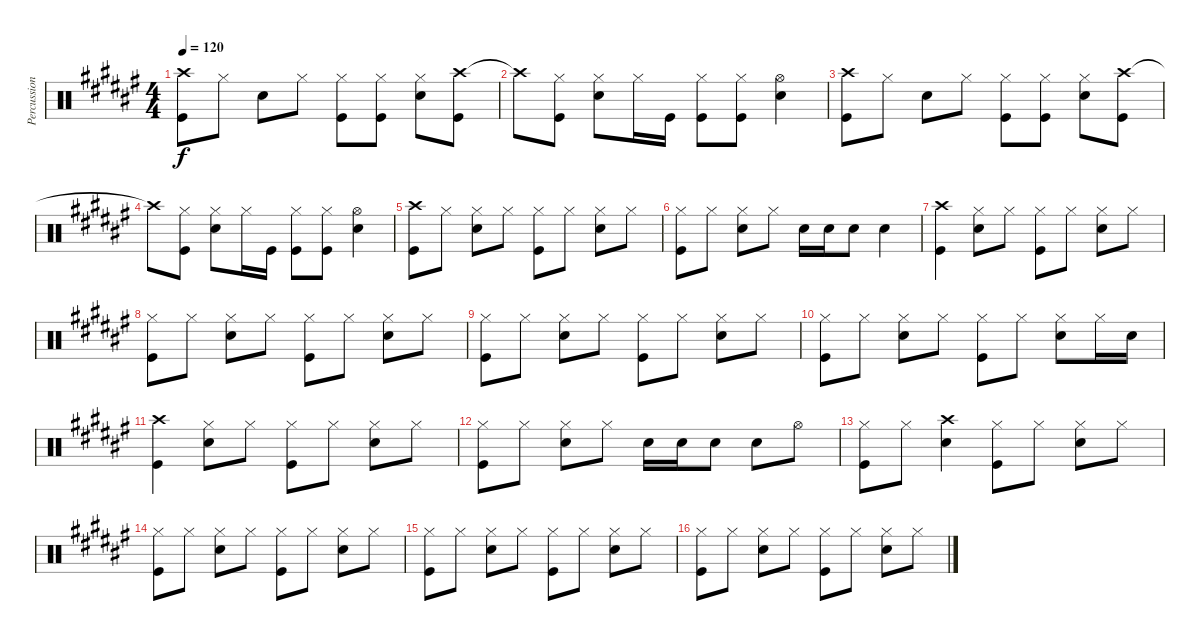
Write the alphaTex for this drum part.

\track ("Percussion" "Percussion") {instrument percussion}
\staff {score}
\articulation defaults
\ts (4 4)
\tempo 120
\clef neutral
\ks f#
("Crash high (hit)" "Kick (hit)").8{dy f} "Hi-Hat (closed)".8 "Snare (hit) 2".8 "Hi-Hat (closed)".8 ("Hi-Hat (closed)" "Kick (hit)").8 ("Hi-Hat (closed)" "Kick (hit)").8 ("Hi-Hat (closed)" "Snare (hit) 2").8 ("Crash high (hit)" "Kick (hit)").8 |
"Crash high (hit)"{t}.8 ("Hi-Hat (closed)" "Kick (hit)").8 ("Hi-Hat (closed)" "Snare (hit) 2").8 "Hi-Hat (closed)".16 "Kick (hit)".16 ("Hi-Hat (closed)" "Kick (hit)").8 ("Hi-Hat (closed)" "Kick (hit)").8 ("Hi-Hat (open)" "Snare (hit) 2").4 |
("Crash high (hit)" "Kick (hit)").8 "Hi-Hat (closed)".8 "Snare (hit) 2".8 "Hi-Hat (closed)".8 ("Hi-Hat (closed)" "Kick (hit)").8 ("Hi-Hat (closed)" "Kick (hit)").8 ("Hi-Hat (closed)" "Snare (hit) 2").8 ("Crash high (hit)" "Kick (hit)").8 |
"Crash high (hit)"{t}.8 ("Hi-Hat (closed)" "Kick (hit)").8 ("Hi-Hat (closed)" "Snare (hit) 2").8 "Hi-Hat (closed)".16 "Kick (hit)".16 ("Hi-Hat (closed)" "Kick (hit)").8 ("Hi-Hat (closed)" "Kick (hit)").8 ("Hi-Hat (open)" "Snare (hit) 2").4 |
("Crash high (hit)" "Kick (hit)").8 "Hi-Hat (closed)".8 ("Hi-Hat (closed)" "Snare (hit) 2").8 "Hi-Hat (closed)".8 ("Hi-Hat (closed)" "Kick (hit)").8 "Hi-Hat (closed)".8 ("Hi-Hat (closed)" "Snare (hit) 2").8 "Hi-Hat (closed)".8 |
("Hi-Hat (closed)" "Kick (hit)").8 "Hi-Hat (closed)".8 ("Hi-Hat (closed)" "Snare (hit) 2").8 "Hi-Hat (closed)".8 "Snare (hit) 2".16 "Snare (hit) 2".16 "Snare (hit) 2".8 "Snare (hit) 2".4 |
("Crash high (hit)" "Kick (hit)").4 ("Hi-Hat (closed)" "Snare (hit) 2").8 "Hi-Hat (closed)".8 ("Hi-Hat (closed)" "Kick (hit)").8 "Hi-Hat (closed)".8 ("Hi-Hat (closed)" "Snare (hit) 2").8 "Hi-Hat (closed)".8 |
("Hi-Hat (closed)" "Kick (hit)").8 "Hi-Hat (closed)".8 ("Hi-Hat (closed)" "Snare (hit) 2").8 "Hi-Hat (closed)".8 ("Hi-Hat (closed)" "Kick (hit)").8 "Hi-Hat (closed)".8 ("Hi-Hat (closed)" "Snare (hit) 2").8 "Hi-Hat (closed)".8 |
("Hi-Hat (closed)" "Kick (hit)").8 "Hi-Hat (closed)".8 ("Hi-Hat (closed)" "Snare (hit) 2").8 "Hi-Hat (closed)".8 ("Hi-Hat (closed)" "Kick (hit)").8 "Hi-Hat (closed)".8 ("Hi-Hat (closed)" "Snare (hit) 2").8 "Hi-Hat (closed)".8 |
("Hi-Hat (closed)" "Kick (hit)").8 "Hi-Hat (closed)".8 ("Hi-Hat (closed)" "Snare (hit) 2").8 "Hi-Hat (closed)".8 ("Hi-Hat (closed)" "Kick (hit)").8 "Hi-Hat (closed)".8 ("Hi-Hat (closed)" "Snare (hit) 2").8 "Hi-Hat (closed)".16 "Snare (hit) 2".16 |
("Crash high (hit)" "Kick (hit)").4 ("Hi-Hat (closed)" "Snare (hit) 2").8 "Hi-Hat (closed)".8 ("Hi-Hat (closed)" "Kick (hit)").8 "Hi-Hat (closed)".8 ("Hi-Hat (closed)" "Snare (hit) 2").8 "Hi-Hat (closed)".8 |
("Hi-Hat (closed)" "Kick (hit)").8 "Hi-Hat (closed)".8 ("Hi-Hat (closed)" "Snare (hit) 2").8 "Hi-Hat (closed)".8 "Snare (hit) 2".16 "Snare (hit) 2".16 "Snare (hit) 2".8 "Snare (hit) 2".8 "Hi-Hat (open)".8 |
("Hi-Hat (closed)" "Kick (hit)").8 "Hi-Hat (closed)".8 ("Crash high (hit)" "Snare (hit) 2").4 ("Hi-Hat (closed)" "Kick (hit)").8 "Hi-Hat (closed)".8 ("Hi-Hat (closed)" "Snare (hit) 2").8 "Hi-Hat (closed)".8 |
("Hi-Hat (closed)" "Kick (hit)").8 "Hi-Hat (closed)".8 ("Hi-Hat (closed)" "Snare (hit) 2").8 "Hi-Hat (closed)".8 ("Hi-Hat (closed)" "Kick (hit)").8 "Hi-Hat (closed)".8 ("Hi-Hat (closed)" "Snare (hit) 2").8 "Hi-Hat (closed)".8 |
("Hi-Hat (closed)" "Kick (hit)").8 "Hi-Hat (closed)".8 ("Hi-Hat (closed)" "Snare (hit) 2").8 "Hi-Hat (closed)".8 ("Hi-Hat (closed)" "Kick (hit)").8 "Hi-Hat (closed)".8 ("Hi-Hat (closed)" "Snare (hit) 2").8 "Hi-Hat (closed)".8 |
("Hi-Hat (closed)" "Kick (hit)").8 "Hi-Hat (closed)".8 ("Hi-Hat (closed)" "Snare (hit) 2").8 "Hi-Hat (closed)".8 ("Hi-Hat (closed)" "Kick (hit)").8 "Hi-Hat (closed)".8 ("Hi-Hat (closed)" "Snare (hit) 2").8 "Hi-Hat (closed)".8
